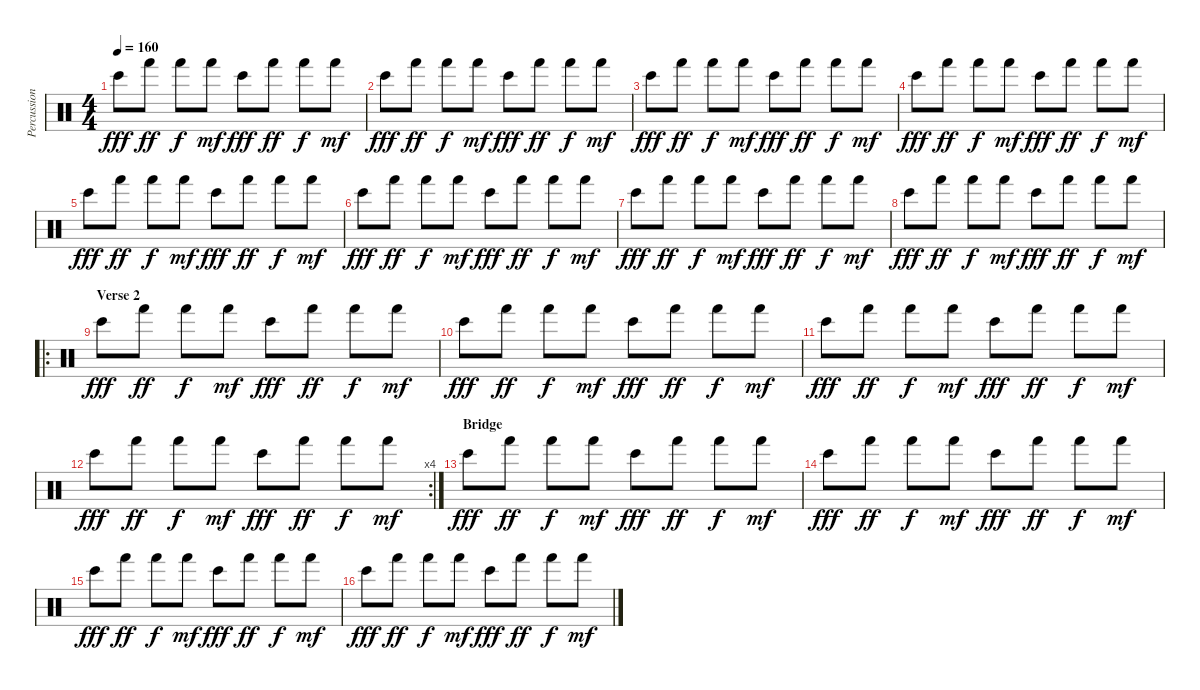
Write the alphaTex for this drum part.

\track ("Percussion" "Percussion") {instrument percussion}
\staff {score}
\articulation defaults
\ts (4 4)
\tempo 160
\clef neutral
\ks c "Bongo High (hit)".8{dy fff} "Hand (hit)".8{dy ff} "Hand (hit)".8{dy f} "Hand (hit)".8{dy mf} "Bongo High (hit)".8{dy fff} "Hand (hit)".8{dy ff} "Hand (hit)".8{dy f} "Hand (hit)".8{dy mf}
|
"Bongo High (hit)".8{dy fff} "Hand (hit)".8{dy ff} "Hand (hit)".8{dy f} "Hand (hit)".8{dy mf} "Bongo High (hit)".8{dy fff} "Hand (hit)".8{dy ff} "Hand (hit)".8{dy f} "Hand (hit)".8{dy mf} |
"Bongo High (hit)".8{dy fff} "Hand (hit)".8{dy ff} "Hand (hit)".8{dy f} "Hand (hit)".8{dy mf} "Bongo High (hit)".8{dy fff} "Hand (hit)".8{dy ff} "Hand (hit)".8{dy f} "Hand (hit)".8{dy mf} |
"Bongo High (hit)".8{dy fff} "Hand (hit)".8{dy ff} "Hand (hit)".8{dy f} "Hand (hit)".8{dy mf} "Bongo High (hit)".8{dy fff} "Hand (hit)".8{dy ff} "Hand (hit)".8{dy f} "Hand (hit)".8{dy mf} |
"Bongo High (hit)".8{dy fff} "Hand (hit)".8{dy ff} "Hand (hit)".8{dy f} "Hand (hit)".8{dy mf} "Bongo High (hit)".8{dy fff} "Hand (hit)".8{dy ff} "Hand (hit)".8{dy f} "Hand (hit)".8{dy mf} |
"Bongo High (hit)".8{dy fff} "Hand (hit)".8{dy ff} "Hand (hit)".8{dy f} "Hand (hit)".8{dy mf} "Bongo High (hit)".8{dy fff} "Hand (hit)".8{dy ff} "Hand (hit)".8{dy f} "Hand (hit)".8{dy mf} |
"Bongo High (hit)".8{dy fff} "Hand (hit)".8{dy ff} "Hand (hit)".8{dy f} "Hand (hit)".8{dy mf} "Bongo High (hit)".8{dy fff} "Hand (hit)".8{dy ff} "Hand (hit)".8{dy f} "Hand (hit)".8{dy mf} |
"Bongo High (hit)".8{dy fff} "Hand (hit)".8{dy ff} "Hand (hit)".8{dy f} "Hand (hit)".8{dy mf} "Bongo High (hit)".8{dy fff} "Hand (hit)".8{dy ff} "Hand (hit)".8{dy f} "Hand (hit)".8{dy mf} |
\ro
\section ("" "Verse 2")
"Bongo High (hit)".8{dy fff} "Hand (hit)".8{dy ff} "Hand (hit)".8{dy f} "Hand (hit)".8{dy mf} "Bongo High (hit)".8{dy fff} "Hand (hit)".8{dy ff} "Hand (hit)".8{dy f} "Hand (hit)".8{dy mf} |
"Bongo High (hit)".8{dy fff} "Hand (hit)".8{dy ff} "Hand (hit)".8{dy f} "Hand (hit)".8{dy mf} "Bongo High (hit)".8{dy fff} "Hand (hit)".8{dy ff} "Hand (hit)".8{dy f} "Hand (hit)".8{dy mf} |
"Bongo High (hit)".8{dy fff} "Hand (hit)".8{dy ff} "Hand (hit)".8{dy f} "Hand (hit)".8{dy mf} "Bongo High (hit)".8{dy fff} "Hand (hit)".8{dy ff} "Hand (hit)".8{dy f} "Hand (hit)".8{dy mf} |
\rc 4 "Bongo High (hit)".8{dy fff} "Hand (hit)".8{dy ff} "Hand (hit)".8{dy f} "Hand (hit)".8{dy mf} "Bongo High (hit)".8{dy fff} "Hand (hit)".8{dy ff} "Hand (hit)".8{dy f} "Hand (hit)".8{dy mf}
|
\section ("" "Bridge")
"Bongo High (hit)".8{dy fff} "Hand (hit)".8{dy ff} "Hand (hit)".8{dy f} "Hand (hit)".8{dy mf} "Bongo High (hit)".8{dy fff} "Hand (hit)".8{dy ff} "Hand (hit)".8{dy f} "Hand (hit)".8{dy mf} |
"Bongo High (hit)".8{dy fff} "Hand (hit)".8{dy ff} "Hand (hit)".8{dy f} "Hand (hit)".8{dy mf} "Bongo High (hit)".8{dy fff} "Hand (hit)".8{dy ff} "Hand (hit)".8{dy f} "Hand (hit)".8{dy mf} |
"Bongo High (hit)".8{dy fff} "Hand (hit)".8{dy ff} "Hand (hit)".8{dy f} "Hand (hit)".8{dy mf} "Bongo High (hit)".8{dy fff} "Hand (hit)".8{dy ff} "Hand (hit)".8{dy f} "Hand (hit)".8{dy mf} |
"Bongo High (hit)".8{dy fff} "Hand (hit)".8{dy ff} "Hand (hit)".8{dy f} "Hand (hit)".8{dy mf} "Bongo High (hit)".8{dy fff} "Hand (hit)".8{dy ff} "Hand (hit)".8{dy f} "Hand (hit)".8{dy mf}
